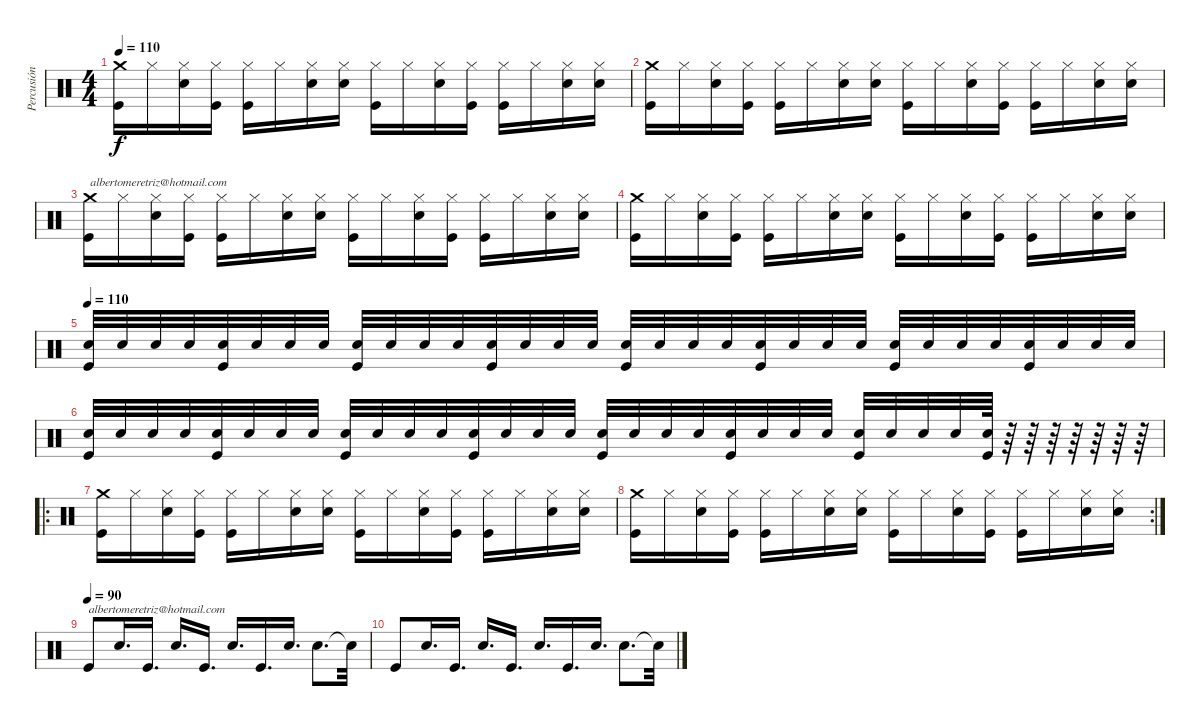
\track ("Percusión" "Percusión") {instrument percussion}
\staff {score}
\articulation defaults
\ts (4 4)
\tempo 110
\clef neutral
\ks c
("Crash medium (hit)" "Kick (hit)").16{dy f} "Hi-Hat (closed)".16 ("Hi-Hat (closed)" "Electric Snare (hit)").16 ("Hi-Hat (closed)" "Kick (hit)").16 ("Hi-Hat (closed)" "Kick (hit)").16 "Hi-Hat (closed)".16 ("Hi-Hat (closed)" "Electric Snare (hit)").16 ("Hi-Hat (closed)" "Electric Snare (hit)").16 ("Hi-Hat (closed)" "Kick (hit)").16 "Hi-Hat (closed)".16 ("Hi-Hat (closed)" "Electric Snare (hit)").16 ("Hi-Hat (closed)" "Kick (hit)").16 ("Hi-Hat (closed)" "Kick (hit)").16 "Hi-Hat (closed)".16 ("Hi-Hat (closed)" "Electric Snare (hit)").16 ("Hi-Hat (closed)" "Electric Snare (hit)").16 |
("Crash medium (hit)" "Kick (hit)").16 "Hi-Hat (closed)".16 ("Hi-Hat (closed)" "Electric Snare (hit)").16 ("Hi-Hat (closed)" "Kick (hit)").16 ("Hi-Hat (closed)" "Kick (hit)").16 "Hi-Hat (closed)".16 ("Hi-Hat (closed)" "Electric Snare (hit)").16 ("Hi-Hat (closed)" "Electric Snare (hit)").16 ("Hi-Hat (closed)" "Kick (hit)").16 "Hi-Hat (closed)".16 ("Hi-Hat (closed)" "Electric Snare (hit)").16 ("Hi-Hat (closed)" "Kick (hit)").16 ("Hi-Hat (closed)" "Kick (hit)").16 "Hi-Hat (closed)".16 ("Hi-Hat (closed)" "Electric Snare (hit)").16 ("Hi-Hat (closed)" "Electric Snare (hit)").16 |
("Crash medium (hit)" "Kick (hit)").16{txt "albertomeretriz@hotmail.com"} "Hi-Hat (closed)".16 ("Hi-Hat (closed)" "Electric Snare (hit)").16 ("Hi-Hat (closed)" "Kick (hit)").16 ("Hi-Hat (closed)" "Kick (hit)").16 "Hi-Hat (closed)".16 ("Hi-Hat (closed)" "Electric Snare (hit)").16 ("Hi-Hat (closed)" "Electric Snare (hit)").16 ("Hi-Hat (closed)" "Kick (hit)").16 "Hi-Hat (closed)".16 ("Hi-Hat (closed)" "Electric Snare (hit)").16 ("Hi-Hat (closed)" "Kick (hit)").16 ("Hi-Hat (closed)" "Kick (hit)").16 "Hi-Hat (closed)".16 ("Hi-Hat (closed)" "Electric Snare (hit)").16 ("Hi-Hat (closed)" "Electric Snare (hit)").16 |
("Crash medium (hit)" "Kick (hit)").16 "Hi-Hat (closed)".16 ("Hi-Hat (closed)" "Electric Snare (hit)").16 ("Hi-Hat (closed)" "Kick (hit)").16 ("Hi-Hat (closed)" "Kick (hit)").16 "Hi-Hat (closed)".16 ("Hi-Hat (closed)" "Electric Snare (hit)").16 ("Hi-Hat (closed)" "Electric Snare (hit)").16 ("Hi-Hat (closed)" "Kick (hit)").16 "Hi-Hat (closed)".16 ("Hi-Hat (closed)" "Electric Snare (hit)").16 ("Hi-Hat (closed)" "Kick (hit)").16 ("Hi-Hat (closed)" "Kick (hit)").16 "Hi-Hat (closed)".16 ("Hi-Hat (closed)" "Electric Snare (hit)").16 ("Hi-Hat (closed)" "Electric Snare (hit)").16 |
\tempo 110
("Electric Snare (hit)" "Kick (hit)").32 "Electric Snare (hit)".32 "Electric Snare (hit)".32 "Electric Snare (hit)".32 ("Electric Snare (hit)" "Kick (hit)").32 "Electric Snare (hit)".32 "Electric Snare (hit)".32 "Electric Snare (hit)".32 ("Electric Snare (hit)" "Kick (hit)").32 "Electric Snare (hit)".32 "Electric Snare (hit)".32 "Electric Snare (hit)".32 ("Electric Snare (hit)" "Kick (hit)").32 "Electric Snare (hit)".32 "Electric Snare (hit)".32 "Electric Snare (hit)".32 ("Electric Snare (hit)" "Kick (hit)").32 "Electric Snare (hit)".32 "Electric Snare (hit)".32 "Electric Snare (hit)".32 ("Electric Snare (hit)" "Kick (hit)").32 "Electric Snare (hit)".32 "Electric Snare (hit)".32 "Electric Snare (hit)".32 ("Electric Snare (hit)" "Kick (hit)").32 "Electric Snare (hit)".32 "Electric Snare (hit)".32 "Electric Snare (hit)".32 ("Electric Snare (hit)" "Kick (hit)").32 "Electric Snare (hit)".32 "Electric Snare (hit)".32 "Electric Snare (hit)".32 |
("Electric Snare (hit)" "Kick (hit)").32 "Electric Snare (hit)".32 "Electric Snare (hit)".32 "Electric Snare (hit)".32 ("Electric Snare (hit)" "Kick (hit)").32 "Electric Snare (hit)".32 "Electric Snare (hit)".32 "Electric Snare (hit)".32 ("Electric Snare (hit)" "Kick (hit)").32 "Electric Snare (hit)".32 "Electric Snare (hit)".32 "Electric Snare (hit)".32 ("Electric Snare (hit)" "Kick (hit)").32 "Electric Snare (hit)".32 "Electric Snare (hit)".32 "Electric Snare (hit)".32 ("Electric Snare (hit)" "Kick (hit)").32 "Electric Snare (hit)".32 "Electric Snare (hit)".32 "Electric Snare (hit)".32 ("Electric Snare (hit)" "Kick (hit)").32 "Electric Snare (hit)".32 "Electric Snare (hit)".32 "Electric Snare (hit)".32 ("Electric Snare (hit)" "Kick (hit)").32 "Electric Snare (hit)".32 "Electric Snare (hit)".32 "Electric Snare (hit)".32 ("Electric Snare (hit)" "Kick (hit)").64 r.64 r.64 r.64 r.64 r.64 r.64 r.64 |
\ro
("Crash medium (hit)" "Kick (hit)").16 "Hi-Hat (closed)".16 ("Hi-Hat (closed)" "Electric Snare (hit)").16 ("Hi-Hat (closed)" "Kick (hit)").16 ("Hi-Hat (closed)" "Kick (hit)").16 "Hi-Hat (closed)".16 ("Hi-Hat (closed)" "Electric Snare (hit)").16 ("Hi-Hat (closed)" "Electric Snare (hit)").16 ("Hi-Hat (closed)" "Kick (hit)").16 "Hi-Hat (closed)".16 ("Hi-Hat (closed)" "Electric Snare (hit)").16 ("Hi-Hat (closed)" "Kick (hit)").16 ("Hi-Hat (closed)" "Kick (hit)").16 "Hi-Hat (closed)".16 ("Hi-Hat (closed)" "Electric Snare (hit)").16 ("Hi-Hat (closed)" "Electric Snare (hit)").16 |
\rc 2
("Crash medium (hit)" "Kick (hit)").16 "Hi-Hat (closed)".16 ("Hi-Hat (closed)" "Electric Snare (hit)").16 ("Hi-Hat (closed)" "Kick (hit)").16 ("Hi-Hat (closed)" "Kick (hit)").16 "Hi-Hat (closed)".16 ("Hi-Hat (closed)" "Electric Snare (hit)").16 ("Hi-Hat (closed)" "Electric Snare (hit)").16 ("Hi-Hat (closed)" "Kick (hit)").16 "Hi-Hat (closed)".16 ("Hi-Hat (closed)" "Electric Snare (hit)").16 ("Hi-Hat (closed)" "Kick (hit)").16 ("Hi-Hat (closed)" "Kick (hit)").16 "Hi-Hat (closed)".16 ("Hi-Hat (closed)" "Electric Snare (hit)").16 ("Hi-Hat (closed)" "Electric Snare (hit)").16 |
\tempo (90)
"Kick (hit)".8{txt "albertomeretriz@hotmail.com"} "Electric Snare (hit)".16{d} "Kick (hit)".16{d} "Electric Snare (hit)".16{d} "Kick (hit)".16{d} "Electric Snare (hit)".16{d} "Kick (hit)".16{d} "Electric Snare (hit)".16{d} "Electric Snare (hit)".8{d} "Electric Snare (hit)"{t}.32 |
"Kick (hit)".8 "Electric Snare (hit)".16{d} "Kick (hit)".16{d} "Electric Snare (hit)".16{d} "Kick (hit)".16{d} "Electric Snare (hit)".16{d} "Kick (hit)".16{d} "Electric Snare (hit)".16{d} "Electric Snare (hit)".8{d} "Electric Snare (hit)"{t}.32
